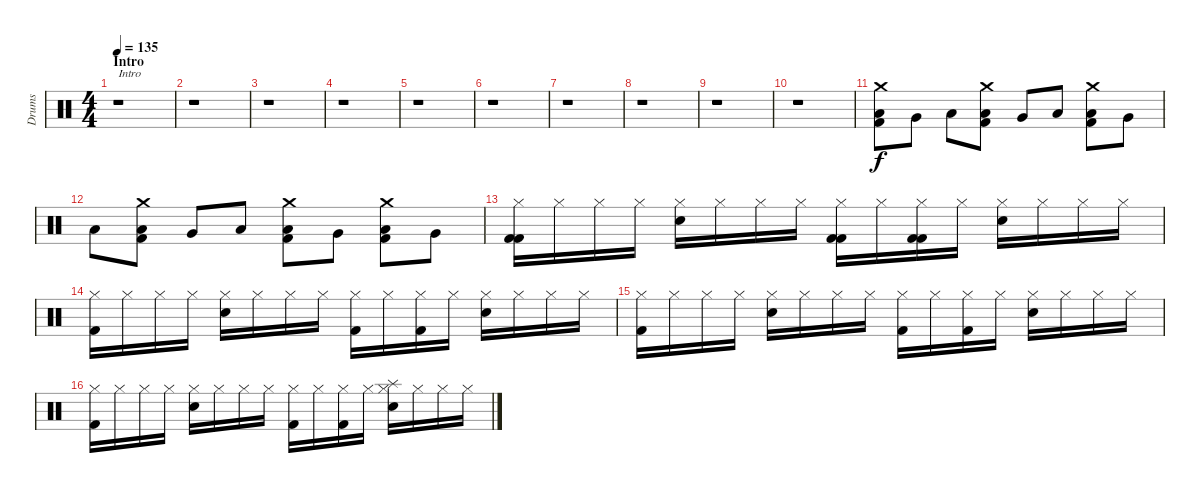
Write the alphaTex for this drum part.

\track ("Drums" "Drums") {instrument percussion}
\staff {score}
\articulation defaults
\ts (4 4)
\section ("" "Intro")
\tempo 135
\clef neutral
\ks c
r.1{txt "Intro" dy f} |
r.1 |
r.1 |
r.1 |
r.1 |
r.1 |
r.1 |
r.1 |
r.1 |
r.1 |
("Crash medium (hit)" "Low Tom (hit)" "Kick (hit) 2").8 "Very Low Tom (hit)".8 "Low Floor Tom (hit)".8 ("Crash medium (hit)" "Low Tom (hit)" "Kick (hit) 2").8 "Very Low Tom (hit)".8 "Low Floor Tom (hit)".8 ("Crash medium (hit)" "Low Tom (hit)" "Kick (hit) 2").8 "Very Low Tom (hit)".8 |
"Low Floor Tom (hit)".8 ("Crash medium (hit)" "Low Tom (hit)" "Kick (hit) 2").8 "Very Low Tom (hit)".8 "Low Floor Tom (hit)".8 ("Crash medium (hit)" "Low Tom (hit)" "Kick (hit) 2").8 "Very Low Tom (hit)".8 ("Crash medium (hit)" "Low Tom (hit)" "Kick (hit) 2").8 "Very Low Tom (hit)".8 |
("Hi-Hat (closed)" "Kick (hit) 2" "Kick (hit) 2").16 "Hi-Hat (closed)".16 "Hi-Hat (closed)".16 "Hi-Hat (closed)".16 ("Hi-Hat (closed)" "Snare (hit) 2").16 "Hi-Hat (closed)".16 "Hi-Hat (closed)".16 "Hi-Hat (closed)".16 ("Hi-Hat (closed)" "Kick (hit) 2" "Kick (hit) 2").16 "Hi-Hat (closed)".16 ("Hi-Hat (closed)" "Kick (hit) 2" "Kick (hit) 2").16 "Hi-Hat (closed)".16 ("Hi-Hat (closed)" "Snare (hit) 2").16 "Hi-Hat (closed)".16 "Hi-Hat (closed)".16 "Hi-Hat (closed)".16 |
("Hi-Hat (closed)" "Kick (hit) 2").16 "Hi-Hat (closed)".16 "Hi-Hat (closed)".16 "Hi-Hat (closed)".16 ("Hi-Hat (closed)" "Snare (hit) 2").16 "Hi-Hat (closed)".16 "Hi-Hat (closed)".16 "Hi-Hat (closed)".16 ("Hi-Hat (closed)" "Kick (hit) 2").16 "Hi-Hat (closed)".16 ("Hi-Hat (closed)" "Kick (hit) 2").16 "Hi-Hat (closed)".16 ("Hi-Hat (closed)" "Snare (hit) 2").16 "Hi-Hat (closed)".16 "Hi-Hat (closed)".16 "Hi-Hat (closed)".16 |
("Hi-Hat (closed)" "Kick (hit) 2").16 "Hi-Hat (closed)".16 "Hi-Hat (closed)".16 "Hi-Hat (closed)".16 ("Hi-Hat (closed)" "Snare (hit) 2").16 "Hi-Hat (closed)".16 "Hi-Hat (closed)".16 "Hi-Hat (closed)".16 ("Hi-Hat (closed)" "Kick (hit) 2").16 "Hi-Hat (closed)".16 ("Hi-Hat (closed)" "Kick (hit) 2").16 "Hi-Hat (closed)".16 ("Hi-Hat (closed)" "Snare (hit) 2").16 "Hi-Hat (closed)".16 "Hi-Hat (closed)".16 "Hi-Hat (closed)".16 |
("Hi-Hat (closed)" "Kick (hit) 2").16 "Hi-Hat (closed)".16 "Hi-Hat (closed)".16 "Hi-Hat (closed)".16 ("Hi-Hat (closed)" "Snare (hit) 2").16 "Hi-Hat (closed)".16 "Hi-Hat (closed)".16 "Hi-Hat (closed)".16 ("Hi-Hat (closed)" "Kick (hit) 2").16 "Hi-Hat (closed)".16 ("Hi-Hat (closed)" "Kick (hit) 2").16 "Hi-Hat (closed)".16 ("Splash (hit)" "Hi-Hat (closed)" "Snare (hit) 2").16 "Hi-Hat (closed)".16 "Hi-Hat (closed)".16 "Hi-Hat (closed)".16
